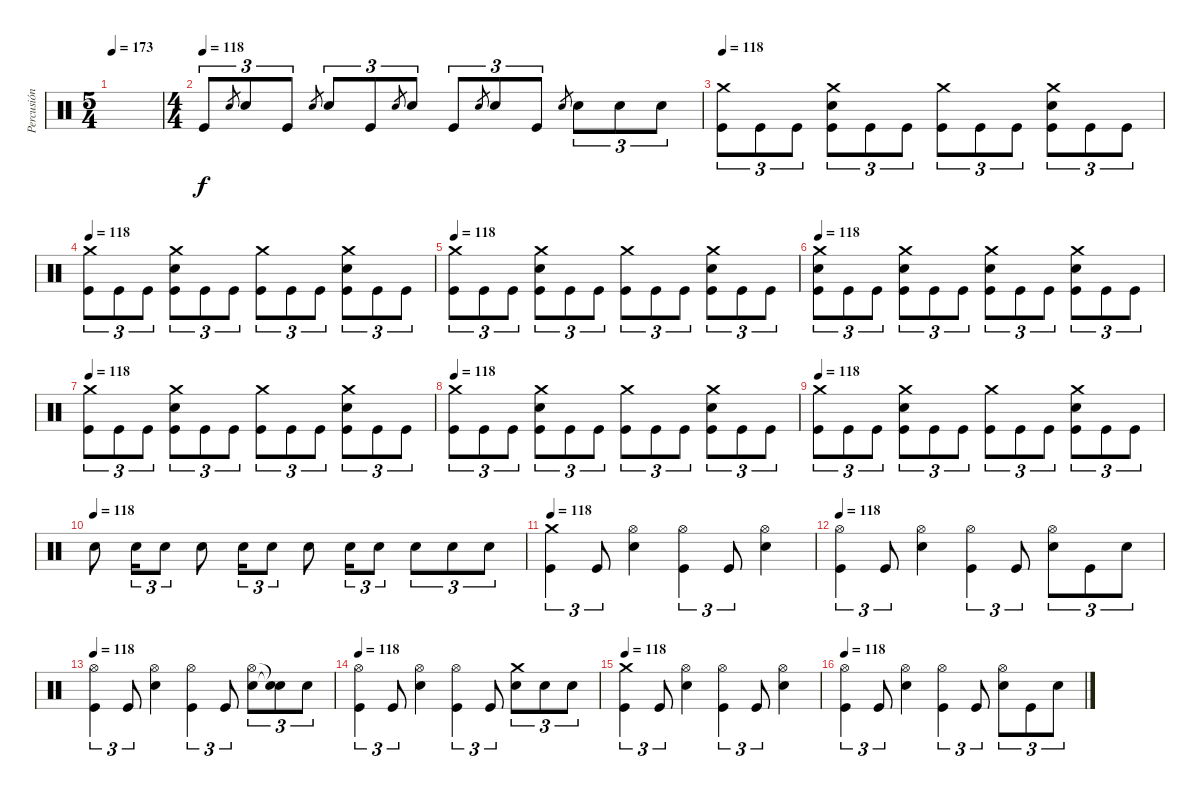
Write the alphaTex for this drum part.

\track ("Percusión" "Percusión") {instrument percussion}
\staff {score}
\articulation defaults
\ts (5 4)
\tempo 173
\clef neutral
\ks c
|
\ts (4 4)
\tempo (118)
"Kick (hit)".8{tu (3 2) dy f} "Electric Snare (hit)".8{gr} "Electric Snare (hit)".8{tu (3 2)} "Kick (hit)".8{tu (3 2)} "Electric Snare (hit)".8{gr} "Electric Snare (hit)".8{tu (3 2)} "Kick (hit)".8{tu (3 2)} "Electric Snare (hit)".8{gr} "Electric Snare (hit)".8{tu (3 2)} "Kick (hit)".8{tu (3 2)} "Electric Snare (hit)".8{gr} "Electric Snare (hit)".8{tu (3 2)} "Kick (hit)".8{tu (3 2)} "Electric Snare (hit)".8{gr} "Electric Snare (hit)".8{tu (3 2)} "Electric Snare (hit)".8{tu (3 2)} "Electric Snare (hit)".8{tu (3 2)} |
\tempo 118
("Crash medium (hit)" "Kick (hit)").8{tu (3 2)} "Kick (hit)".8{tu (3 2)} "Kick (hit)".8{tu (3 2)} ("Crash medium (hit)" "Electric Snare (hit)" "Kick (hit)").8{tu (3 2)} "Kick (hit)".8{tu (3 2)} "Kick (hit)".8{tu (3 2)} ("Crash medium (hit)" "Kick (hit)").8{tu (3 2)} "Kick (hit)".8{tu (3 2)} "Kick (hit)".8{tu (3 2)} ("Crash medium (hit)" "Electric Snare (hit)" "Kick (hit)").8{tu (3 2)} "Kick (hit)".8{tu (3 2)} "Kick (hit)".8{tu (3 2)} |
\tempo 118
("Crash medium (hit)" "Kick (hit)").8{tu (3 2)} "Kick (hit)".8{tu (3 2)} "Kick (hit)".8{tu (3 2)} ("Crash medium (hit)" "Electric Snare (hit)" "Kick (hit)").8{tu (3 2)} "Kick (hit)".8{tu (3 2)} "Kick (hit)".8{tu (3 2)} ("Crash medium (hit)" "Kick (hit)").8{tu (3 2)} "Kick (hit)".8{tu (3 2)} "Kick (hit)".8{tu (3 2)} ("Crash medium (hit)" "Electric Snare (hit)" "Kick (hit)").8{tu (3 2)} "Kick (hit)".8{tu (3 2)} "Kick (hit)".8{tu (3 2)} |
\tempo 118
("Crash medium (hit)" "Kick (hit)").8{tu (3 2)} "Kick (hit)".8{tu (3 2)} "Kick (hit)".8{tu (3 2)} ("Crash medium (hit)" "Electric Snare (hit)" "Kick (hit)").8{tu (3 2)} "Kick (hit)".8{tu (3 2)} "Kick (hit)".8{tu (3 2)} ("Crash medium (hit)" "Kick (hit)").8{tu (3 2)} "Kick (hit)".8{tu (3 2)} "Kick (hit)".8{tu (3 2)} ("Crash medium (hit)" "Electric Snare (hit)" "Kick (hit)").8{tu (3 2)} "Kick (hit)".8{tu (3 2)} "Kick (hit)".8{tu (3 2)} |
\tempo 118
("Crash medium (hit)" "Electric Snare (hit)" "Kick (hit)").8{tu (3 2)} "Kick (hit)".8{tu (3 2)} "Kick (hit)".8{tu (3 2)} ("Crash medium (hit)" "Electric Snare (hit)" "Kick (hit)").8{tu (3 2)} "Kick (hit)".8{tu (3 2)} "Kick (hit)".8{tu (3 2)} ("Crash medium (hit)" "Electric Snare (hit)" "Kick (hit)").8{tu (3 2)} "Kick (hit)".8{tu (3 2)} "Kick (hit)".8{tu (3 2)} ("Crash medium (hit)" "Electric Snare (hit)" "Kick (hit)").8{tu (3 2)} "Kick (hit)".8{tu (3 2)} "Kick (hit)".8{tu (3 2)} |
\tempo 118
("Crash medium (hit)" "Kick (hit)").8{tu (3 2)} "Kick (hit)".8{tu (3 2)} "Kick (hit)".8{tu (3 2)} ("Crash medium (hit)" "Electric Snare (hit)" "Kick (hit)").8{tu (3 2)} "Kick (hit)".8{tu (3 2)} "Kick (hit)".8{tu (3 2)} ("Crash medium (hit)" "Kick (hit)").8{tu (3 2)} "Kick (hit)".8{tu (3 2)} "Kick (hit)".8{tu (3 2)} ("Crash medium (hit)" "Electric Snare (hit)" "Kick (hit)").8{tu (3 2)} "Kick (hit)".8{tu (3 2)} "Kick (hit)".8{tu (3 2)} |
\tempo 118
("Crash medium (hit)" "Kick (hit)").8{tu (3 2)} "Kick (hit)".8{tu (3 2)} "Kick (hit)".8{tu (3 2)} ("Crash medium (hit)" "Electric Snare (hit)" "Kick (hit)").8{tu (3 2)} "Kick (hit)".8{tu (3 2)} "Kick (hit)".8{tu (3 2)} ("Crash medium (hit)" "Kick (hit)").8{tu (3 2)} "Kick (hit)".8{tu (3 2)} "Kick (hit)".8{tu (3 2)} ("Crash medium (hit)" "Electric Snare (hit)" "Kick (hit)").8{tu (3 2)} "Kick (hit)".8{tu (3 2)} "Kick (hit)".8{tu (3 2)} |
\tempo 118
("Crash medium (hit)" "Kick (hit)").8{tu (3 2)} "Kick (hit)".8{tu (3 2)} "Kick (hit)".8{tu (3 2)} ("Crash medium (hit)" "Electric Snare (hit)" "Kick (hit)").8{tu (3 2)} "Kick (hit)".8{tu (3 2)} "Kick (hit)".8{tu (3 2)} ("Crash medium (hit)" "Kick (hit)").8{tu (3 2)} "Kick (hit)".8{tu (3 2)} "Kick (hit)".8{tu (3 2)} ("Crash medium (hit)" "Electric Snare (hit)" "Kick (hit)").8{tu (3 2)} "Kick (hit)".8{tu (3 2)} "Kick (hit)".8{tu (3 2)} |
\tempo (118)
"Electric Snare (hit)".8 "Electric Snare (hit)".16{tu (3 2)} "Electric Snare (hit)".8{tu (3 2)} "Electric Snare (hit)".8 "Electric Snare (hit)".16{tu (3 2)} "Electric Snare (hit)".8{tu (3 2)} "Electric Snare (hit)".8 "Electric Snare (hit)".16{tu (3 2)} "Electric Snare (hit)".8{tu (3 2)} "Electric Snare (hit)".8{tu (3 2)} "Electric Snare (hit)".8{tu (3 2)} "Electric Snare (hit)".8{tu (3 2)} |
\tempo 118
("Crash medium (hit)" "Kick (hit)").4{tu (3 2)} "Kick (hit)".8{tu (3 2)} ("Hi-Hat (open)" "Electric Snare (hit)").4 ("Hi-Hat (open)" "Kick (hit)").4{tu (3 2)} "Kick (hit)".8{tu (3 2)} ("Hi-Hat (open)" "Electric Snare (hit)").4 |
\tempo 118
("Hi-Hat (open)" "Kick (hit)").4{tu (3 2)} "Kick (hit)".8{tu (3 2)} ("Hi-Hat (open)" "Electric Snare (hit)").4 ("Hi-Hat (open)" "Kick (hit)").4{tu (3 2)} "Kick (hit)".8{tu (3 2)} ("Hi-Hat (open)" "Electric Snare (hit)").8{tu (3 2)} "Kick (hit)".8{tu (3 2)} "Electric Snare (hit)".8{tu (3 2)} |
\tempo 118
("Hi-Hat (open)" "Kick (hit)").4{tu (3 2)} "Kick (hit)".8{tu (3 2)} ("Hi-Hat (open)" "Electric Snare (hit)").4 ("Hi-Hat (open)" "Kick (hit)").4{tu (3 2)} "Kick (hit)".8{tu (3 2)} ("Hi-Hat (open)" "Electric Snare (hit)").8{tu (3 2)} ("Snare (hit)"{t} "Snare (hit)"{t}).8{tu (3 2)} "Electric Snare (hit)".8{tu (3 2)} |
\tempo 118
("Hi-Hat (open)" "Kick (hit)").4{tu (3 2)} "Kick (hit)".8{tu (3 2)} ("Hi-Hat (open)" "Electric Snare (hit)").4 ("Hi-Hat (open)" "Kick (hit)").4{tu (3 2)} "Kick (hit)".8{tu (3 2)} ("Crash medium (hit)" "Electric Snare (hit)").8{tu (3 2)} "Electric Snare (hit)".8{tu (3 2)} "Electric Snare (hit)".8{tu (3 2)} |
\tempo 118
("Crash medium (hit)" "Kick (hit)").4{tu (3 2)} "Kick (hit)".8{tu (3 2)} ("Hi-Hat (open)" "Electric Snare (hit)").4 ("Hi-Hat (open)" "Kick (hit)").4{tu (3 2)} "Kick (hit)".8{tu (3 2)} ("Hi-Hat (open)" "Electric Snare (hit)").4 |
\tempo 118
("Hi-Hat (open)" "Kick (hit)").4{tu (3 2)} "Kick (hit)".8{tu (3 2)} ("Hi-Hat (open)" "Electric Snare (hit)").4 ("Hi-Hat (open)" "Kick (hit)").4{tu (3 2)} "Kick (hit)".8{tu (3 2)} ("Hi-Hat (open)" "Electric Snare (hit)").8{tu (3 2)} "Kick (hit)".8{tu (3 2)} "Electric Snare (hit)".8{tu (3 2)}
